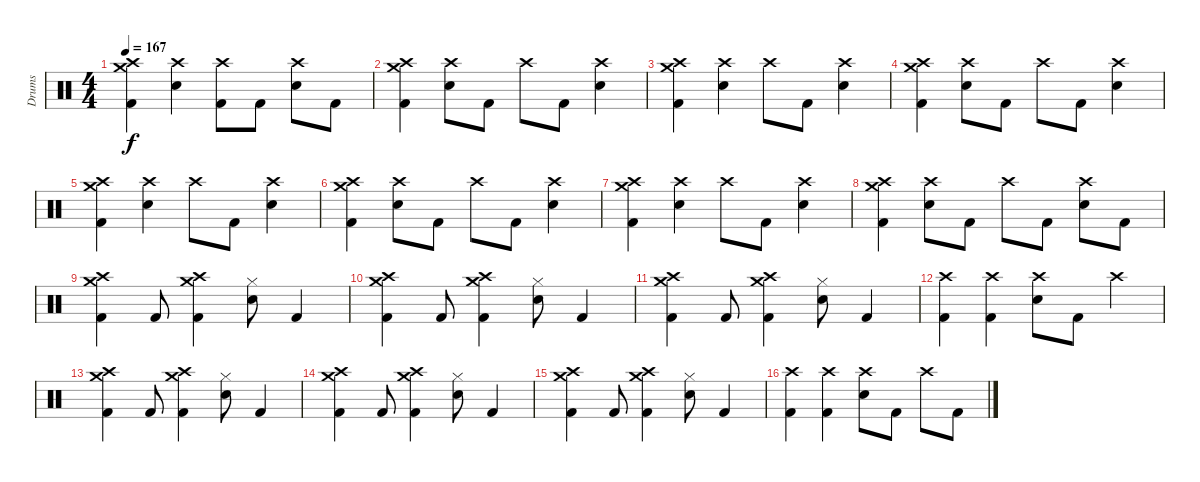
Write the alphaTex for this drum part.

\track ("Drums" "Drums") {instrument percussion}
\staff {score}
\articulation defaults
\ts (4 4)
\tempo 167
\clef neutral
\ks c
("Crash medium (hit)" "Crash high (hit)" "Kick (hit) 2").4{dy f} ("Crash high (hit)" "Snare (hit) 2").4 ("Crash high (hit)" "Kick (hit) 2").8 "Kick (hit) 2".8 ("Crash high (hit)" "Snare (hit) 2").8 "Kick (hit) 2".8 |
("Crash medium (hit)" "Crash high (hit)" "Kick (hit) 2").4 ("Crash high (hit)" "Snare (hit) 2").8 "Kick (hit) 2".8 "Crash high (hit)".8 "Kick (hit) 2".8 ("Crash high (hit)" "Snare (hit) 2").4 |
("Crash medium (hit)" "Crash high (hit)" "Kick (hit) 2").4 ("Crash high (hit)" "Snare (hit) 2").4 "Crash high (hit)".8 "Kick (hit) 2".8 ("Crash high (hit)" "Snare (hit) 2").4 |
("Crash medium (hit)" "Crash high (hit)" "Kick (hit) 2").4 ("Crash high (hit)" "Snare (hit) 2").8 "Kick (hit) 2".8 "Crash high (hit)".8 "Kick (hit) 2".8 ("Crash high (hit)" "Snare (hit) 2").4 |
("Crash medium (hit)" "Crash high (hit)" "Kick (hit) 2").4 ("Crash high (hit)" "Snare (hit) 2").4 "Crash high (hit)".8 "Kick (hit) 2".8 ("Crash high (hit)" "Snare (hit) 2").4 |
("Crash medium (hit)" "Crash high (hit)" "Kick (hit) 2").4 ("Crash high (hit)" "Snare (hit) 2").8 "Kick (hit) 2".8 "Crash high (hit)".8 "Kick (hit) 2".8 ("Crash high (hit)" "Snare (hit) 2").4 |
("Crash medium (hit)" "Crash high (hit)" "Kick (hit) 2").4 ("Crash high (hit)" "Snare (hit) 2").4 "Crash high (hit)".8 "Kick (hit) 2".8 ("Crash high (hit)" "Snare (hit) 2").4 |
("Crash medium (hit)" "Crash high (hit)" "Kick (hit) 2").4 ("Crash high (hit)" "Snare (hit) 2").8 "Kick (hit) 2".8 "Crash high (hit)".8 "Kick (hit) 2".8 ("Crash high (hit)" "Snare (hit) 2").8 "Kick (hit) 2".8 |
("Crash high (hit)" "Crash medium (hit)" "Kick (hit) 2").4 "Kick (hit) 2".8 ("Crash medium (hit)" "Crash high (hit)" "Kick (hit) 2").4 ("Hi-Hat (closed)" "Snare (hit) 2").8 "Kick (hit) 2".4 |
("Crash high (hit)" "Crash medium (hit)" "Kick (hit) 2").4 "Kick (hit) 2".8 ("Crash medium (hit)" "Crash high (hit)" "Kick (hit) 2").4 ("Hi-Hat (closed)" "Snare (hit) 2").8 "Kick (hit) 2".4 |
("Crash high (hit)" "Crash medium (hit)" "Kick (hit) 2").4 "Kick (hit) 2".8 ("Crash medium (hit)" "Crash high (hit)" "Kick (hit) 2").4 ("Hi-Hat (closed)" "Snare (hit) 2").8 "Kick (hit) 2".4 |
("Crash high (hit)" "Kick (hit) 2").4 ("Crash high (hit)" "Kick (hit) 2").4 ("Crash high (hit)" "Snare (hit) 2").8 "Kick (hit) 2".8 "Crash high (hit)".4 |
("Crash high (hit)" "Crash medium (hit)" "Kick (hit) 2").4 "Kick (hit) 2".8 ("Crash medium (hit)" "Crash high (hit)" "Kick (hit) 2").4 ("Hi-Hat (closed)" "Snare (hit) 2").8 "Kick (hit) 2".4 |
("Crash high (hit)" "Crash medium (hit)" "Kick (hit) 2").4 "Kick (hit) 2".8 ("Crash medium (hit)" "Crash high (hit)" "Kick (hit) 2").4 ("Hi-Hat (closed)" "Snare (hit) 2").8 "Kick (hit) 2".4 |
("Crash high (hit)" "Crash medium (hit)" "Kick (hit) 2").4 "Kick (hit) 2".8 ("Crash medium (hit)" "Crash high (hit)" "Kick (hit) 2").4 ("Hi-Hat (closed)" "Snare (hit) 2").8 "Kick (hit) 2".4 |
("Crash high (hit)" "Kick (hit) 2").4 ("Crash high (hit)" "Kick (hit) 2").4 ("Crash high (hit)" "Snare (hit) 2").8 "Kick (hit) 2".8 "Crash high (hit)".8 "Kick (hit) 2".8
